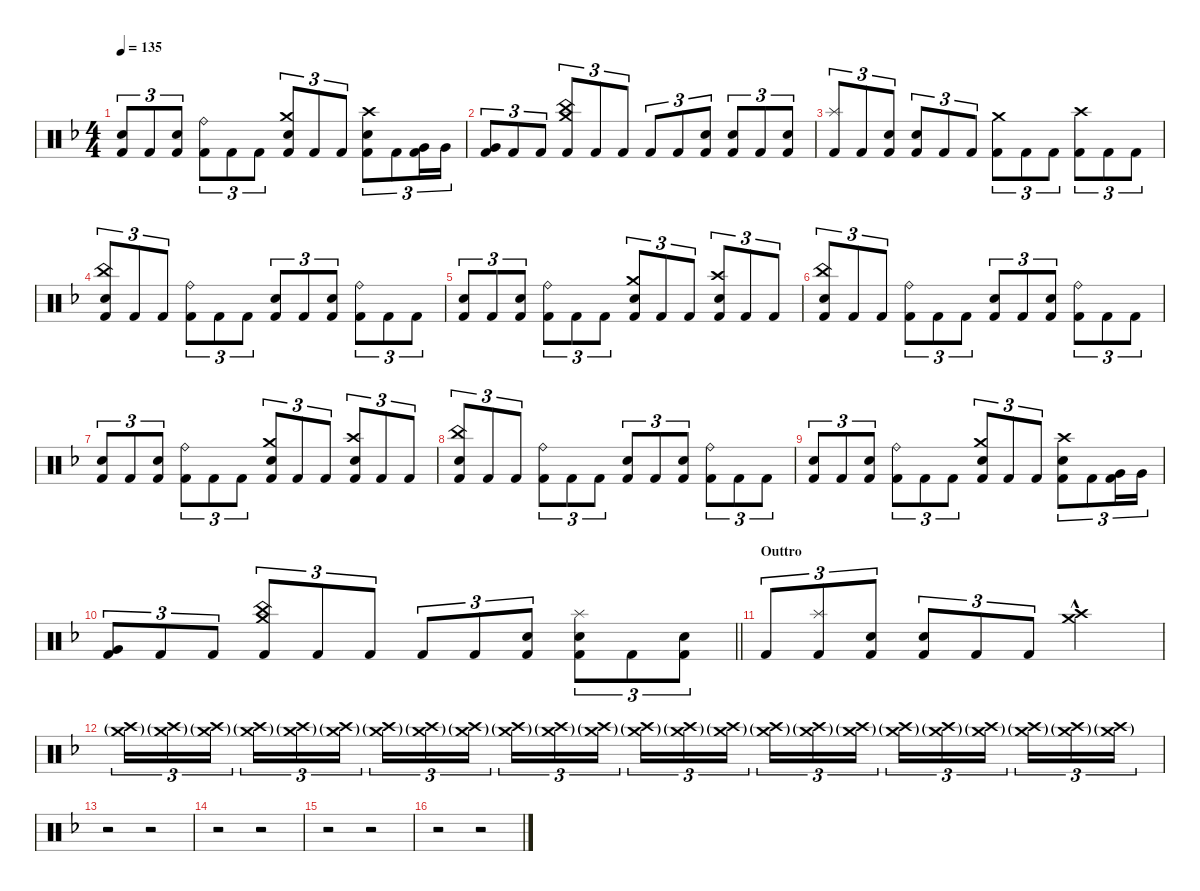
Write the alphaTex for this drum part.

\defaultSystemsLayout 4
\hideDynamics
\bracketExtendMode nobrackets
\singleTrackTrackNamePolicy hidden
\multiTrackTrackNamePolicy hidden
\firstSystemTrackNameMode fullname
\firstSystemTrackNameOrientation horizontal
\otherSystemsTrackNameOrientation horizontal
\track ("Drums" "drm.") {instrument percussion}
\staff {score}
\articulation defaults
\ts (4 4)
\tempo 135
\clef neutral
\ks dminor
("Snare (hit) 2"{acc forcenatural} "Kick (hit) 2"{acc forcenatural}).8{tu (3 2) dy f beam Up} "Kick (hit) 2"{acc forcenatural}.8{tu (3 2) beam Up} ("Snare (hit) 2"{acc forcenatural} "Kick (hit) 2"{acc forcenatural}).8{tu (3 2) beam Up} ("Ride (bell)"{acc forcenatural} "Kick (hit) 2"{acc forcenatural}).8{tu (3 2) beam Down} "Kick (hit) 2"{acc forcenatural}.8{tu (3 2) beam Down} "Kick (hit) 2"{acc forcenatural}.8{tu (3 2) beam Down} ("Crash medium (hit)"{acc forcenatural} "Snare (hit) 2"{acc forcenatural} "Kick (hit) 2"{acc forcenatural}).8{tu (3 2) beam Up} "Kick (hit) 2"{acc forcenatural}.8{tu (3 2) beam Up} "Kick (hit) 2"{acc forcenatural}.8{tu (3 2) beam Up} ("Crash high (hit)"{acc forcenatural} "Snare (hit) 2"{acc forcenatural} "Kick (hit) 2"{acc forcenatural}).8{tu (3 2) beam Down} "Kick (hit) 2"{acc forcenatural}.8{tu (3 2) beam Down} ("Very Low Tom (hit)"{acc forcenatural} "Kick (hit) 2"{acc forcenatural}).16{tu (3 2) beam Down} "Very Low Tom (hit)"{acc forcenatural}.16{tu (3 2) beam Down} |
("Very Low Tom (hit)"{acc forcenatural} "Kick (hit) 2"{acc forcenatural}).8{tu (3 2) beam Up} "Kick (hit) 2"{acc forcenatural}.8{tu (3 2) beam Up} "Kick (hit) 2"{acc forcenatural}.8{tu (3 2) beam Up} ("China (hit)"{acc forcenatural} "Crash medium (hit)"{acc forcenatural} "Kick (hit) 2"{acc forcenatural}).8{tu (3 2) beam Up} "Kick (hit) 2"{acc forcenatural}.8{tu (3 2) beam Up} "Kick (hit) 2"{acc forcenatural}.8{tu (3 2) beam Up} "Kick (hit) 2"{acc forcenatural}.8{tu (3 2) beam Up} "Kick (hit) 2"{acc forcenatural}.8{tu (3 2) beam Up} ("Snare (hit) 2"{acc forcenatural} "Kick (hit) 2"{acc forcenatural}).8{tu (3 2) beam Up} ("Snare (hit) 2"{acc forcenatural} "Kick (hit) 2"{acc forcenatural}).8{tu (3 2) beam Up} "Kick (hit) 2"{acc forcenatural}.8{tu (3 2) beam Up} ("Snare (hit) 2"{acc forcenatural} "Kick (hit) 2"{acc forcenatural}).8{tu (3 2) beam Up} |
("Splash (hit)"{acc forcenatural} "Kick (hit) 2"{acc forcenatural}).8{tu (3 2) beam Up} "Kick (hit) 2"{acc forcenatural}.8{tu (3 2) beam Up} ("Snare (hit) 2"{acc forcenatural} "Kick (hit) 2"{acc forcenatural}).8{tu (3 2) beam Up} ("Snare (hit) 2"{acc forcenatural} "Kick (hit) 2"{acc forcenatural}).8{tu (3 2) beam Up} "Kick (hit) 2"{acc forcenatural}.8{tu (3 2) beam Up} "Kick (hit) 2"{acc forcenatural}.8{tu (3 2) beam Up} ("Crash medium (hit)"{acc forcenatural} "Kick (hit) 2"{acc forcenatural}).8{tu (3 2) beam Down} "Kick (hit) 2"{acc forcenatural}.8{tu (3 2) beam Down} "Kick (hit) 2"{acc forcenatural}.8{tu (3 2) beam Down} ("Crash high (hit)"{acc forcenatural} "Kick (hit) 2"{acc forcenatural}).8{tu (3 2) beam Down} "Kick (hit) 2"{acc forcenatural}.8{tu (3 2) beam Down} "Kick (hit) 2"{acc forcenatural}.8{tu (3 2) beam Down} |
("China (hit)"{acc forcenatural} "Snare (hit) 2"{acc forcenatural} "Kick (hit) 2"{acc forcenatural}).8{tu (3 2) beam Up} "Kick (hit) 2"{acc forcenatural}.8{tu (3 2) beam Up} "Kick (hit) 2"{acc forcenatural}.8{tu (3 2) beam Up} ("Ride (bell)"{acc forcenatural} "Kick (hit) 2"{acc forcenatural}).8{tu (3 2) beam Down} "Kick (hit) 2"{acc forcenatural}.8{tu (3 2) beam Down} "Kick (hit) 2"{acc forcenatural}.8{tu (3 2) beam Down} ("Snare (hit) 2"{acc forcenatural} "Kick (hit) 2"{acc forcenatural}).8{tu (3 2) beam Up} "Kick (hit) 2"{acc forcenatural}.8{tu (3 2) beam Up} ("Snare (hit) 2"{acc forcenatural} "Kick (hit) 2"{acc forcenatural}).8{tu (3 2) beam Up} ("Ride (bell)"{acc forcenatural} "Kick (hit) 2"{acc forcenatural}).8{tu (3 2) beam Down} "Kick (hit) 2"{acc forcenatural}.8{tu (3 2) beam Down} "Kick (hit) 2"{acc forcenatural}.8{tu (3 2) beam Down} |
("Snare (hit) 2"{acc forcenatural} "Kick (hit) 2"{acc forcenatural}).8{tu (3 2) beam Up} "Kick (hit) 2"{acc forcenatural}.8{tu (3 2) beam Up} ("Snare (hit) 2"{acc forcenatural} "Kick (hit) 2"{acc forcenatural}).8{tu (3 2) beam Up} ("Ride (bell)"{acc forcenatural} "Kick (hit) 2"{acc forcenatural}).8{tu (3 2) beam Down} "Kick (hit) 2"{acc forcenatural}.8{tu (3 2) beam Down} "Kick (hit) 2"{acc forcenatural}.8{tu (3 2) beam Down} ("Crash medium (hit)"{acc forcenatural} "Snare (hit) 2"{acc forcenatural} "Kick (hit) 2"{acc forcenatural}).8{tu (3 2) beam Up} "Kick (hit) 2"{acc forcenatural}.8{tu (3 2) beam Up} "Kick (hit) 2"{acc forcenatural}.8{tu (3 2) beam Up} ("Crash high (hit)"{acc forcenatural} "Snare (hit) 2"{acc forcenatural} "Kick (hit) 2"{acc forcenatural}).8{tu (3 2) beam Up} "Kick (hit) 2"{acc forcenatural}.8{tu (3 2) beam Up} "Kick (hit) 2"{acc forcenatural}.8{tu (3 2) beam Up} |
("China (hit)"{acc forcenatural} "Snare (hit) 2"{acc forcenatural} "Kick (hit) 2"{acc forcenatural}).8{tu (3 2) beam Up} "Kick (hit) 2"{acc forcenatural}.8{tu (3 2) beam Up} "Kick (hit) 2"{acc forcenatural}.8{tu (3 2) beam Up} ("Ride (bell)"{acc forcenatural} "Kick (hit) 2"{acc forcenatural}).8{tu (3 2) beam Down} "Kick (hit) 2"{acc forcenatural}.8{tu (3 2) beam Down} "Kick (hit) 2"{acc forcenatural}.8{tu (3 2) beam Down} ("Snare (hit) 2"{acc forcenatural} "Kick (hit) 2"{acc forcenatural}).8{tu (3 2) beam Up} "Kick (hit) 2"{acc forcenatural}.8{tu (3 2) beam Up} ("Snare (hit) 2"{acc forcenatural} "Kick (hit) 2"{acc forcenatural}).8{tu (3 2) beam Up} ("Ride (bell)"{acc forcenatural} "Kick (hit) 2"{acc forcenatural}).8{tu (3 2) beam Down} "Kick (hit) 2"{acc forcenatural}.8{tu (3 2) beam Down} "Kick (hit) 2"{acc forcenatural}.8{tu (3 2) beam Down} |
("Snare (hit) 2"{acc forcenatural} "Kick (hit) 2"{acc forcenatural}).8{tu (3 2) beam Up} "Kick (hit) 2"{acc forcenatural}.8{tu (3 2) beam Up} ("Snare (hit) 2"{acc forcenatural} "Kick (hit) 2"{acc forcenatural}).8{tu (3 2) beam Up} ("Ride (bell)"{acc forcenatural} "Kick (hit) 2"{acc forcenatural}).8{tu (3 2) beam Down} "Kick (hit) 2"{acc forcenatural}.8{tu (3 2) beam Down} "Kick (hit) 2"{acc forcenatural}.8{tu (3 2) beam Down} ("Crash medium (hit)"{acc forcenatural} "Snare (hit) 2"{acc forcenatural} "Kick (hit) 2"{acc forcenatural}).8{tu (3 2) beam Up} "Kick (hit) 2"{acc forcenatural}.8{tu (3 2) beam Up} "Kick (hit) 2"{acc forcenatural}.8{tu (3 2) beam Up} ("Crash high (hit)"{acc forcenatural} "Snare (hit) 2"{acc forcenatural} "Kick (hit) 2"{acc forcenatural}).8{tu (3 2) beam Up} "Kick (hit) 2"{acc forcenatural}.8{tu (3 2) beam Up} "Kick (hit) 2"{acc forcenatural}.8{tu (3 2) beam Up} |
("China (hit)"{acc forcenatural} "Snare (hit) 2"{acc forcenatural} "Kick (hit) 2"{acc forcenatural}).8{tu (3 2) beam Up} "Kick (hit) 2"{acc forcenatural}.8{tu (3 2) beam Up} "Kick (hit) 2"{acc forcenatural}.8{tu (3 2) beam Up} ("Ride (bell)"{acc forcenatural} "Kick (hit) 2"{acc forcenatural}).8{tu (3 2) beam Down} "Kick (hit) 2"{acc forcenatural}.8{tu (3 2) beam Down} "Kick (hit) 2"{acc forcenatural}.8{tu (3 2) beam Down} ("Snare (hit) 2"{acc forcenatural} "Kick (hit) 2"{acc forcenatural}).8{tu (3 2) beam Up} "Kick (hit) 2"{acc forcenatural}.8{tu (3 2) beam Up} ("Snare (hit) 2"{acc forcenatural} "Kick (hit) 2"{acc forcenatural}).8{tu (3 2) beam Up} ("Ride (bell)"{acc forcenatural} "Kick (hit) 2"{acc forcenatural}).8{tu (3 2) beam Down} "Kick (hit) 2"{acc forcenatural}.8{tu (3 2) beam Down} "Kick (hit) 2"{acc forcenatural}.8{tu (3 2) beam Down} |
("Snare (hit) 2"{acc forcenatural} "Kick (hit) 2"{acc forcenatural}).8{tu (3 2) beam Up} "Kick (hit) 2"{acc forcenatural}.8{tu (3 2) beam Up} ("Snare (hit) 2"{acc forcenatural} "Kick (hit) 2"{acc forcenatural}).8{tu (3 2) beam Up} ("Ride (bell)"{acc forcenatural} "Kick (hit) 2"{acc forcenatural}).8{tu (3 2) beam Down} "Kick (hit) 2"{acc forcenatural}.8{tu (3 2) beam Down} "Kick (hit) 2"{acc forcenatural}.8{tu (3 2) beam Down} ("Crash medium (hit)"{acc forcenatural} "Snare (hit) 2"{acc forcenatural} "Kick (hit) 2"{acc forcenatural}).8{tu (3 2) beam Up} "Kick (hit) 2"{acc forcenatural}.8{tu (3 2) beam Up} "Kick (hit) 2"{acc forcenatural}.8{tu (3 2) beam Up} ("Crash high (hit)"{acc forcenatural} "Snare (hit) 2"{acc forcenatural} "Kick (hit) 2"{acc forcenatural}).8{tu (3 2) beam Down} "Kick (hit) 2"{acc forcenatural}.8{tu (3 2) beam Down} ("Very Low Tom (hit)"{acc forcenatural} "Kick (hit) 2"{acc forcenatural}).16{tu (3 2) beam Down} "Very Low Tom (hit)"{acc forcenatural}.16{tu (3 2) beam Down} |
\barLineRight lightlight
("Very Low Tom (hit)"{acc forcenatural} "Kick (hit) 2"{acc forcenatural}).8{tu (3 2) beam Up} "Kick (hit) 2"{acc forcenatural}.8{tu (3 2) beam Up} "Kick (hit) 2"{acc forcenatural}.8{tu (3 2) beam Up} ("China (hit)"{acc forcenatural} "Crash medium (hit)"{acc forcenatural} "Kick (hit) 2"{acc forcenatural}).8{tu (3 2) beam Up} "Kick (hit) 2"{acc forcenatural}.8{tu (3 2) beam Up} "Kick (hit) 2"{acc forcenatural}.8{tu (3 2) beam Up} "Kick (hit) 2"{acc forcenatural}.8{tu (3 2) beam Up} "Kick (hit) 2"{acc forcenatural}.8{tu (3 2) beam Up} ("Snare (hit) 2"{acc forcenatural} "Kick (hit) 2"{acc forcenatural}).8{tu (3 2) beam Up} ("Splash (hit)"{acc forcenatural} "Snare (hit) 2"{acc forcenatural} "Kick (hit) 2"{acc forcenatural}).8{tu (3 2) beam Down} "Kick (hit) 2"{acc forcenatural}.8{tu (3 2) beam Down} ("Snare (hit) 2"{acc forcenatural} "Kick (hit) 2"{acc forcenatural}).8{tu (3 2) beam Down} |
\section ("" "Outtro")
"Kick (hit) 2"{acc forcenatural}.8{tu (3 2) beam Up} ("Splash (hit)"{acc forcenatural} "Kick (hit) 2"{acc forcenatural}).8{tu (3 2) beam Up} ("Snare (hit) 2"{acc forcenatural} "Kick (hit) 2"{acc forcenatural}).8{tu (3 2) beam Up} ("Snare (hit) 2"{acc forcenatural} "Kick (hit) 2"{acc forcenatural}).8{tu (3 2) beam Up} "Kick (hit) 2"{acc forcenatural}.8{tu (3 2) beam Up} "Kick (hit) 2"{acc forcenatural}.8{tu (3 2) beam Up} ("Crash high (hit)"{hac acc forcenatural} "Crash medium (hit)"{hac acc forcenatural}).2{beam Down} |
("Crash high (hit)"{g acc forcenatural} "Crash medium (hit)"{g acc forcenatural}).16{tu (3 2) dy mf beam Down} ("Crash high (hit)"{g acc forcenatural} "Crash medium (hit)"{g acc forcenatural}).16{tu (3 2) beam Down} ("Crash high (hit)"{g acc forcenatural} "Crash medium (hit)"{g acc forcenatural}).16{tu (3 2) beam Down} ("Crash high (hit)"{g acc forcenatural} "Crash medium (hit)"{g acc forcenatural}).16{tu (3 2) beam Down} ("Crash high (hit)"{g acc forcenatural} "Crash medium (hit)"{g acc forcenatural}).16{tu (3 2) beam Down} ("Crash high (hit)"{g acc forcenatural} "Crash medium (hit)"{g acc forcenatural}).16{tu (3 2) beam Down} ("Crash high (hit)"{g acc forcenatural} "Crash medium (hit)"{g acc forcenatural}).16{tu (3 2) beam Down} ("Crash high (hit)"{g acc forcenatural} "Crash medium (hit)"{g acc forcenatural}).16{tu (3 2) beam Down} ("Crash high (hit)"{g acc forcenatural} "Crash medium (hit)"{g acc forcenatural}).16{tu (3 2) beam Down} ("Crash high (hit)"{g acc forcenatural} "Crash medium (hit)"{g acc forcenatural}).16{tu (3 2) beam Down} ("Crash high (hit)"{g acc forcenatural} "Crash medium (hit)"{g acc forcenatural}).16{tu (3 2) beam Down} ("Crash high (hit)"{g acc forcenatural} "Crash medium (hit)"{g acc forcenatural}).16{tu (3 2) beam Down} ("Crash high (hit)"{g acc forcenatural} "Crash medium (hit)"{g acc forcenatural}).16{tu (3 2) beam Down} ("Crash high (hit)"{g acc forcenatural} "Crash medium (hit)"{g acc forcenatural}).16{tu (3 2) beam Down} ("Crash high (hit)"{g acc forcenatural} "Crash medium (hit)"{g acc forcenatural}).16{tu (3 2) beam Down} ("Crash high (hit)"{g acc forcenatural} "Crash medium (hit)"{g acc forcenatural}).16{tu (3 2) beam Down} ("Crash high (hit)"{g acc forcenatural} "Crash medium (hit)"{g acc forcenatural}).16{tu (3 2) beam Down} ("Crash high (hit)"{g acc forcenatural} "Crash medium (hit)"{g acc forcenatural}).16{tu (3 2) beam Down} ("Crash high (hit)"{g acc forcenatural} "Crash medium (hit)"{g acc forcenatural}).16{tu (3 2) beam Down} ("Crash high (hit)"{g acc forcenatural} "Crash medium (hit)"{g acc forcenatural}).16{tu (3 2) beam Down} ("Crash high (hit)"{g acc forcenatural} "Crash medium (hit)"{g acc forcenatural}).16{tu (3 2) beam Down} ("Crash high (hit)"{g acc forcenatural} "Crash medium (hit)"{g acc forcenatural}).16{tu (3 2) beam Down} ("Crash high (hit)"{g acc forcenatural} "Crash medium (hit)"{g acc forcenatural}).16{tu (3 2) beam Down} ("Crash high (hit)"{g acc forcenatural} "Crash medium (hit)"{g acc forcenatural}).16{tu (3 2) beam Down} |
r.2{beam Down} r.2{beam Down} |
r.2{beam Down} r.2{beam Down} |
r.2{beam Down} r.2{beam Down} |
r.2{beam Down} r.2{beam Down}
